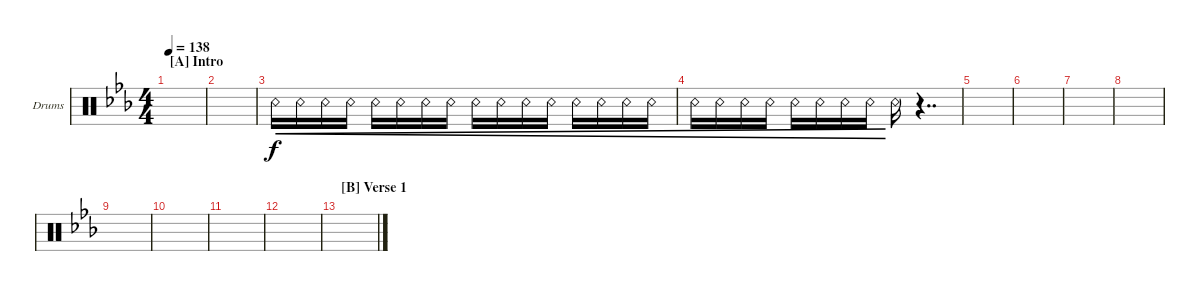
\defaultSystemsLayout 4
\bracketExtendMode groupsimilarinstruments
\firstSystemTrackNameOrientation horizontal
\otherSystemsTrackNameOrientation horizontal
\track ("Drums" "Drums") {instrument percussion}
\staff {score}
\articulation defaults
\ts (4 4)
\section ("A" "Intro")
\tempo 138
\clef neutral
\scale
0.525424
\ks eb
|
\scale
0.237288 |
\scale
0.237288 "Snare (rim shot)".16{cre} "Snare (rim shot)".16{cre} "Snare (rim shot)".16{cre} "Snare (rim shot)".16{cre} "Snare (rim shot)".16{cre} "Snare (rim shot)".16{cre} "Snare (rim shot)".16{cre} "Snare (rim shot)".16{cre} "Snare (rim shot)".16{cre} "Snare (rim shot)".16{cre} "Snare (rim shot)".16{cre} "Snare (rim shot)".16{cre} "Snare (rim shot)".16{cre} "Snare (rim shot)".16{cre} "Snare (rim shot)".16{cre} "Snare (rim shot)".16{cre} |
\scale
0.333333 "Snare (rim shot)".16{cre} "Snare (rim shot)".16{cre} "Snare (rim shot)".16{cre} "Snare (rim shot)".16{cre} "Snare (rim shot)".16{cre} "Snare (rim shot)".16{cre} "Snare (rim shot)".16{cre} "Snare (rim shot)".16{cre} "Snare (rim shot)".16 r.4{dd} |
\scale
0.333333 |
\scale
0.333333 |
\scale
0.333333 |
\scale
0.333333 |
\scale
0.333333 |
\scale
0.333333 |
\scale
0.333333 |
\scale
0.333333 |
\section ("B" "Verse 1")
\scale
0.333333 |
\scale
0.333333 |
\scale
0.333333 |
\scale
0.333333
